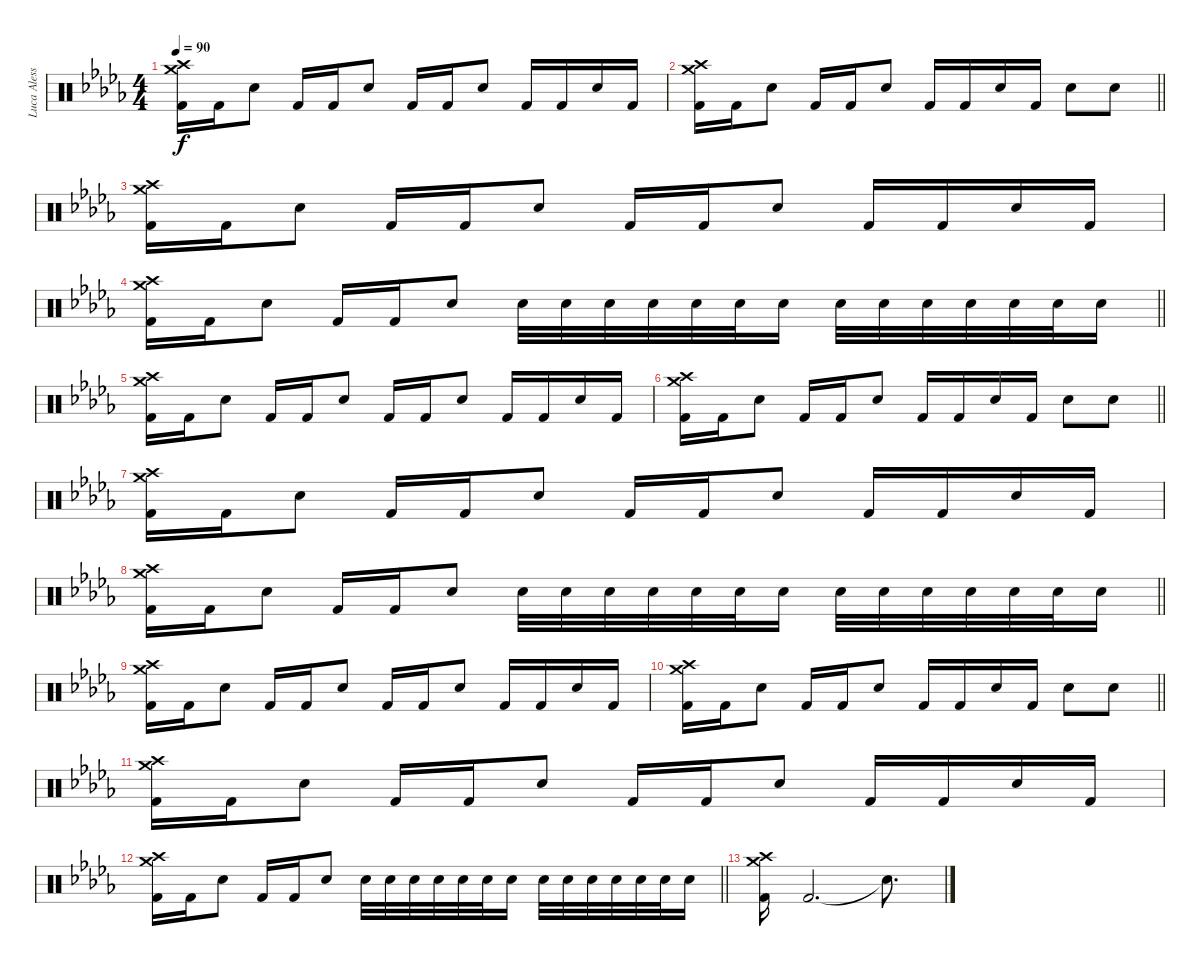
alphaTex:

\track ("Luca Alessandrelli (Drums)" "Luca Aless") {instrument percussion}
\staff {score}
\articulation defaults
\ts (4 4)
\tempo 90
\clef neutral
\ks db
("Crash high (hit)" "Crash medium (hit)" "Kick (hit) 2").16{dy f} "Kick (hit) 2".16 "Snare (hit) 2".8 "Kick (hit) 2".16 "Kick (hit) 2".16 "Snare (hit) 2".8 "Kick (hit) 2".16 "Kick (hit) 2".16 "Snare (hit) 2".8 "Kick (hit) 2".16 "Kick (hit) 2".16 "Snare (hit) 2".16 "Kick (hit) 2".16 |
\barLineRight lightlight
("Crash high (hit)" "Crash medium (hit)" "Kick (hit) 2").16 "Kick (hit) 2".16 "Snare (hit) 2".8 "Kick (hit) 2".16 "Kick (hit) 2".16 "Snare (hit) 2".8 "Kick (hit) 2".16 "Kick (hit) 2".16 "Snare (hit) 2".16 "Kick (hit) 2".16 "Snare (hit) 2".8 "Snare (hit) 2".8 |
("Crash high (hit)" "Crash medium (hit)" "Kick (hit) 2").16 "Kick (hit) 2".16 "Snare (hit) 2".8 "Kick (hit) 2".16 "Kick (hit) 2".16 "Snare (hit) 2".8 "Kick (hit) 2".16 "Kick (hit) 2".16 "Snare (hit) 2".8 "Kick (hit) 2".16 "Kick (hit) 2".16 "Snare (hit) 2".16 "Kick (hit) 2".16 |
\barLineRight lightlight
("Crash high (hit)" "Crash medium (hit)" "Kick (hit) 2").16 "Kick (hit) 2".16 "Snare (hit) 2".8 "Kick (hit) 2".16 "Kick (hit) 2".16 "Snare (hit) 2".8 "Snare (hit) 2".32 "Snare (hit) 2".32 "Snare (hit) 2".32 "Snare (hit) 2".32 "Snare (hit) 2".32 "Snare (hit) 2".32 "Snare (hit) 2".16 "Snare (hit) 2".32 "Snare (hit) 2".32 "Snare (hit) 2".32 "Snare (hit) 2".32 "Snare (hit) 2".32 "Snare (hit) 2".32 "Snare (hit) 2".16 |
("Crash high (hit)" "Crash medium (hit)" "Kick (hit) 2").16 "Kick (hit) 2".16 "Snare (hit) 2".8 "Kick (hit) 2".16 "Kick (hit) 2".16 "Snare (hit) 2".8 "Kick (hit) 2".16 "Kick (hit) 2".16 "Snare (hit) 2".8 "Kick (hit) 2".16 "Kick (hit) 2".16 "Snare (hit) 2".16 "Kick (hit) 2".16 |
\barLineRight lightlight
("Crash high (hit)" "Crash medium (hit)" "Kick (hit) 2").16 "Kick (hit) 2".16 "Snare (hit) 2".8 "Kick (hit) 2".16 "Kick (hit) 2".16 "Snare (hit) 2".8 "Kick (hit) 2".16 "Kick (hit) 2".16 "Snare (hit) 2".16 "Kick (hit) 2".16 "Snare (hit) 2".8 "Snare (hit) 2".8 |
("Crash high (hit)" "Crash medium (hit)" "Kick (hit) 2").16 "Kick (hit) 2".16 "Snare (hit) 2".8 "Kick (hit) 2".16 "Kick (hit) 2".16 "Snare (hit) 2".8 "Kick (hit) 2".16 "Kick (hit) 2".16 "Snare (hit) 2".8 "Kick (hit) 2".16 "Kick (hit) 2".16 "Snare (hit) 2".16 "Kick (hit) 2".16 |
\barLineRight lightlight
("Crash high (hit)" "Crash medium (hit)" "Kick (hit) 2").16 "Kick (hit) 2".16 "Snare (hit) 2".8 "Kick (hit) 2".16 "Kick (hit) 2".16 "Snare (hit) 2".8 "Snare (hit) 2".32 "Snare (hit) 2".32 "Snare (hit) 2".32 "Snare (hit) 2".32 "Snare (hit) 2".32 "Snare (hit) 2".32 "Snare (hit) 2".16 "Snare (hit) 2".32 "Snare (hit) 2".32 "Snare (hit) 2".32 "Snare (hit) 2".32 "Snare (hit) 2".32 "Snare (hit) 2".32 "Snare (hit) 2".16 |
("Crash high (hit)" "Crash medium (hit)" "Kick (hit) 2").16 "Kick (hit) 2".16 "Snare (hit) 2".8 "Kick (hit) 2".16 "Kick (hit) 2".16 "Snare (hit) 2".8 "Kick (hit) 2".16 "Kick (hit) 2".16 "Snare (hit) 2".8 "Kick (hit) 2".16 "Kick (hit) 2".16 "Snare (hit) 2".16 "Kick (hit) 2".16 |
\barLineRight lightlight
("Crash high (hit)" "Crash medium (hit)" "Kick (hit) 2").16 "Kick (hit) 2".16 "Snare (hit) 2".8 "Kick (hit) 2".16 "Kick (hit) 2".16 "Snare (hit) 2".8 "Kick (hit) 2".16 "Kick (hit) 2".16 "Snare (hit) 2".16 "Kick (hit) 2".16 "Snare (hit) 2".8 "Snare (hit) 2".8 |
("Crash high (hit)" "Crash medium (hit)" "Kick (hit) 2").16 "Kick (hit) 2".16 "Snare (hit) 2".8 "Kick (hit) 2".16 "Kick (hit) 2".16 "Snare (hit) 2".8 "Kick (hit) 2".16 "Kick (hit) 2".16 "Snare (hit) 2".8 "Kick (hit) 2".16 "Kick (hit) 2".16 "Snare (hit) 2".16 "Kick (hit) 2".16 |
\barLineRight lightlight
("Crash high (hit)" "Crash medium (hit)" "Kick (hit) 2").16 "Kick (hit) 2".16 "Snare (hit) 2".8 "Kick (hit) 2".16 "Kick (hit) 2".16 "Snare (hit) 2".8 "Snare (hit) 2".32 "Snare (hit) 2".32 "Snare (hit) 2".32 "Snare (hit) 2".32 "Snare (hit) 2".32 "Snare (hit) 2".32 "Snare (hit) 2".16 "Snare (hit) 2".32 "Snare (hit) 2".32 "Snare (hit) 2".32 "Snare (hit) 2".32 "Snare (hit) 2".32 "Snare (hit) 2".32 "Snare (hit) 2".16 |
("Crash high (hit)" "Crash medium (hit)" "Kick (hit) 2").16 "Kick (hit) 2".2{d} "Snare (hit)"{t}.8{d}
